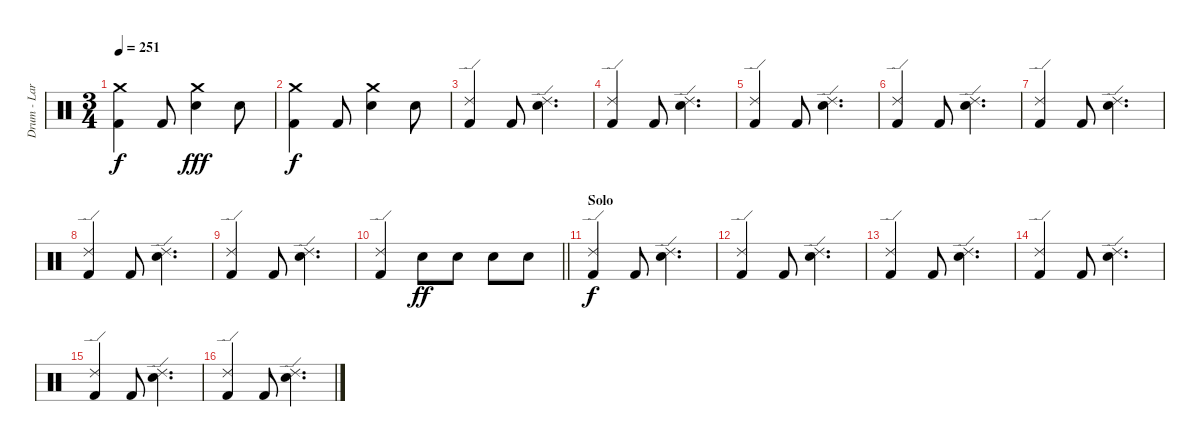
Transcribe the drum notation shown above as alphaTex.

\track ("Drum - Larzon" "Drum - Lar") {instrument percussion}
\staff {score}
\articulation defaults
\ts (3 4)
\tempo 251
\clef neutral
\ks c
("Kick (hit) 2" "Crash medium (hit)").4{dy f} "Kick (hit) 2".8 ("Snare (hit) 2" "Crash medium (hit)").4{dy fff} "Snare (hit) 2".8 |
("Kick (hit) 2" "Crash medium (hit)").4{dy f} "Kick (hit) 2".8 ("Snare (hit) 2" "Crash medium (hit)").4 "Snare (hit) 2".8 |
("Kick (hit) 2" "Ride (edge) 2").4 "Kick (hit) 2".8 ("Snare (hit) 2" "Ride (edge) 2").4{d} |
("Kick (hit) 2" "Ride (edge) 2").4 "Kick (hit) 2".8 ("Snare (hit) 2" "Ride (edge) 2").4{d} |
("Kick (hit) 2" "Ride (edge) 2").4 "Kick (hit) 2".8 ("Snare (hit) 2" "Ride (edge) 2").4{d} |
("Kick (hit) 2" "Ride (edge) 2").4 "Kick (hit) 2".8 ("Snare (hit) 2" "Ride (edge) 2").4{d} |
("Kick (hit) 2" "Ride (edge) 2").4 "Kick (hit) 2".8 ("Snare (hit) 2" "Ride (edge) 2").4{d} |
("Kick (hit) 2" "Ride (edge) 2").4 "Kick (hit) 2".8 ("Snare (hit) 2" "Ride (edge) 2").4{d} |
("Kick (hit) 2" "Ride (edge) 2").4 "Kick (hit) 2".8 ("Snare (hit) 2" "Ride (edge) 2").4{d} |
\barLineRight lightlight
("Kick (hit) 2" "Ride (edge) 2").4 "Electric Snare (hit)".8{dy ff} "Electric Snare (hit)".8 "Electric Snare (hit)".8 "Electric Snare (hit)".8 |
\section ("" "Solo")
("Kick (hit) 2" "Ride (edge) 2").4{dy f} "Kick (hit) 2".8 ("Snare (hit) 2" "Ride (edge) 2").4{d} |
("Kick (hit) 2" "Ride (edge) 2").4 "Kick (hit) 2".8 ("Snare (hit) 2" "Ride (edge) 2").4{d} |
("Kick (hit) 2" "Ride (edge) 2").4 "Kick (hit) 2".8 ("Snare (hit) 2" "Ride (edge) 2").4{d} |
("Kick (hit) 2" "Ride (edge) 2").4 "Kick (hit) 2".8 ("Snare (hit) 2" "Ride (edge) 2").4{d} |
("Kick (hit) 2" "Ride (edge) 2").4 "Kick (hit) 2".8 ("Snare (hit) 2" "Ride (edge) 2").4{d} |
("Kick (hit) 2" "Ride (edge) 2").4 "Kick (hit) 2".8 ("Snare (hit) 2" "Ride (edge) 2").4{d}
